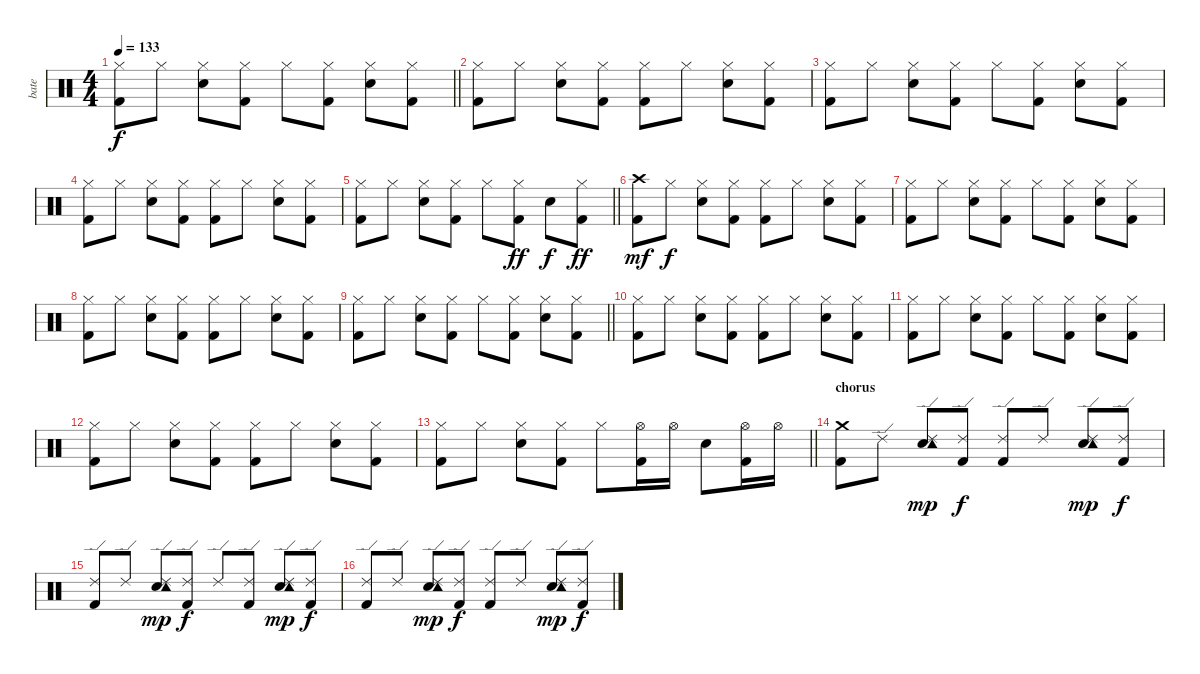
\track ("bate" "bate") {instrument percussion}
\staff {score}
\articulation defaults
\ts (4 4)
\tempo 133
\clef neutral
\barLineRight lightlight
\ks c
("Hi-Hat (closed)" "Kick (hit) 2").8{dy f} "Hi-Hat (closed)".8 ("Hi-Hat (closed)" "Snare (hit) 2").8 ("Hi-Hat (closed)" "Kick (hit) 2").8 "Hi-Hat (closed)".8 ("Hi-Hat (closed)" "Kick (hit) 2").8 ("Hi-Hat (closed)" "Snare (hit) 2").8 ("Hi-Hat (closed)" "Kick (hit) 2").8 |
("Hi-Hat (closed)" "Kick (hit) 2").8 "Hi-Hat (closed)".8 ("Hi-Hat (closed)" "Snare (hit) 2").8 ("Hi-Hat (closed)" "Kick (hit) 2").8 ("Hi-Hat (closed)" "Kick (hit) 2").8 "Hi-Hat (closed)".8 ("Hi-Hat (closed)" "Snare (hit) 2").8 ("Hi-Hat (closed)" "Kick (hit) 2").8 |
("Hi-Hat (closed)" "Kick (hit) 2").8 "Hi-Hat (closed)".8 ("Hi-Hat (closed)" "Snare (hit) 2").8 ("Hi-Hat (closed)" "Kick (hit) 2").8 "Hi-Hat (closed)".8 ("Hi-Hat (closed)" "Kick (hit) 2").8 ("Hi-Hat (closed)" "Snare (hit) 2").8 ("Hi-Hat (closed)" "Kick (hit) 2").8 |
("Hi-Hat (closed)" "Kick (hit) 2").8 "Hi-Hat (closed)".8 ("Hi-Hat (closed)" "Snare (hit) 2").8 ("Hi-Hat (closed)" "Kick (hit) 2").8 ("Hi-Hat (closed)" "Kick (hit) 2").8 "Hi-Hat (closed)".8 ("Hi-Hat (closed)" "Snare (hit) 2").8 ("Hi-Hat (closed)" "Kick (hit) 2").8 |
\barLineRight lightlight
("Hi-Hat (closed)" "Kick (hit) 2").8 "Hi-Hat (closed)".8 ("Hi-Hat (closed)" "Snare (hit) 2").8 ("Hi-Hat (closed)" "Kick (hit) 2").8 "Hi-Hat (closed)".8 ("Hi-Hat (closed)" "Kick (hit) 2").8{dy ff} "Snare (hit) 2".8{dy f} ("Hi-Hat (closed)" "Kick (hit) 2").8{dy ff} |
("Crash high (hit)" "Kick (hit) 2").8{dy mf} "Hi-Hat (closed)".8{dy f} ("Hi-Hat (closed)" "Snare (hit) 2").8 ("Hi-Hat (closed)" "Kick (hit) 2").8 ("Hi-Hat (closed)" "Kick (hit) 2").8 "Hi-Hat (closed)".8 ("Hi-Hat (closed)" "Snare (hit) 2").8 ("Hi-Hat (closed)" "Kick (hit) 2").8 |
("Hi-Hat (closed)" "Kick (hit) 2").8 "Hi-Hat (closed)".8 ("Hi-Hat (closed)" "Snare (hit) 2").8 ("Hi-Hat (closed)" "Kick (hit) 2").8 "Hi-Hat (closed)".8 ("Hi-Hat (closed)" "Kick (hit) 2").8 ("Hi-Hat (closed)" "Snare (hit) 2").8 ("Hi-Hat (closed)" "Kick (hit) 2").8 |
("Hi-Hat (closed)" "Kick (hit) 2").8 "Hi-Hat (closed)".8 ("Hi-Hat (closed)" "Snare (hit) 2").8 ("Hi-Hat (closed)" "Kick (hit) 2").8 ("Hi-Hat (closed)" "Kick (hit) 2").8 "Hi-Hat (closed)".8 ("Hi-Hat (closed)" "Snare (hit) 2").8 ("Hi-Hat (closed)" "Kick (hit) 2").8 |
\barLineRight lightlight
("Hi-Hat (closed)" "Kick (hit) 2").8 "Hi-Hat (closed)".8 ("Hi-Hat (closed)" "Snare (hit) 2").8 ("Hi-Hat (closed)" "Kick (hit) 2").8 "Hi-Hat (closed)".8 ("Hi-Hat (closed)" "Kick (hit) 2").8 ("Hi-Hat (closed)" "Snare (hit) 2").8 ("Hi-Hat (closed)" "Kick (hit) 2").8 |
("Hi-Hat (closed)" "Kick (hit) 2").8 "Hi-Hat (closed)".8 ("Hi-Hat (closed)" "Snare (hit) 2").8 ("Hi-Hat (closed)" "Kick (hit) 2").8 ("Hi-Hat (closed)" "Kick (hit) 2").8 "Hi-Hat (closed)".8 ("Hi-Hat (closed)" "Snare (hit) 2").8 ("Hi-Hat (closed)" "Kick (hit) 2").8 |
("Hi-Hat (closed)" "Kick (hit) 2").8 "Hi-Hat (closed)".8 ("Hi-Hat (closed)" "Snare (hit) 2").8 ("Hi-Hat (closed)" "Kick (hit) 2").8 "Hi-Hat (closed)".8 ("Hi-Hat (closed)" "Kick (hit) 2").8 ("Hi-Hat (closed)" "Snare (hit) 2").8 ("Hi-Hat (closed)" "Kick (hit) 2").8 |
("Hi-Hat (closed)" "Kick (hit) 2").8 "Hi-Hat (closed)".8 ("Hi-Hat (closed)" "Snare (hit) 2").8 ("Hi-Hat (closed)" "Kick (hit) 2").8 ("Hi-Hat (closed)" "Kick (hit) 2").8 "Hi-Hat (closed)".8 ("Hi-Hat (closed)" "Snare (hit) 2").8 ("Hi-Hat (closed)" "Kick (hit) 2").8 |
\barLineRight lightlight
("Hi-Hat (closed)" "Kick (hit) 2").8 "Hi-Hat (closed)".8 ("Hi-Hat (closed)" "Snare (hit) 2").8 ("Hi-Hat (closed)" "Kick (hit) 2").8 "Hi-Hat (closed)".8 ("Hi-Hat (open)" "Kick (hit) 2").16 "Hi-Hat (open)".16 "Snare (hit) 2".8 ("Hi-Hat (open)" "Kick (hit) 2").16 "Hi-Hat (open)".16 |
\section ("" "chorus")
("Crash medium (hit)" "Kick (hit) 2").8 "Ride (edge) 2".8 ("Ride (edge) 2" "Snare (hit) 2" "Tambourine (hit)").8{dy mp} ("Ride (edge) 2" "Kick (hit) 2").8{dy f} ("Ride (edge) 2" "Kick (hit) 2").8 "Ride (edge) 2".8 ("Ride (edge) 2" "Snare (hit) 2" "Tambourine (hit)").8{dy mp} ("Ride (edge) 2" "Kick (hit) 2").8{dy f} |
("Ride (edge) 2" "Kick (hit) 2").8 "Ride (edge) 2".8 ("Ride (edge) 2" "Snare (hit) 2" "Tambourine (hit)").8{dy mp} ("Ride (edge) 2" "Kick (hit) 2").8{dy f} "Ride (edge) 2".8 ("Ride (edge) 2" "Kick (hit) 2").8 ("Ride (edge) 2" "Snare (hit) 2" "Tambourine (hit)").8{dy mp} ("Ride (edge) 2" "Kick (hit) 2").8{dy f} |
("Ride (edge) 2" "Kick (hit) 2").8 "Ride (edge) 2".8 ("Ride (edge) 2" "Snare (hit) 2" "Tambourine (hit)").8{dy mp} ("Ride (edge) 2" "Kick (hit) 2").8{dy f} ("Ride (edge) 2" "Kick (hit) 2").8 "Ride (edge) 2".8 ("Ride (edge) 2" "Snare (hit) 2" "Tambourine (hit)").8{dy mp} ("Ride (edge) 2" "Kick (hit) 2").8{dy f}
